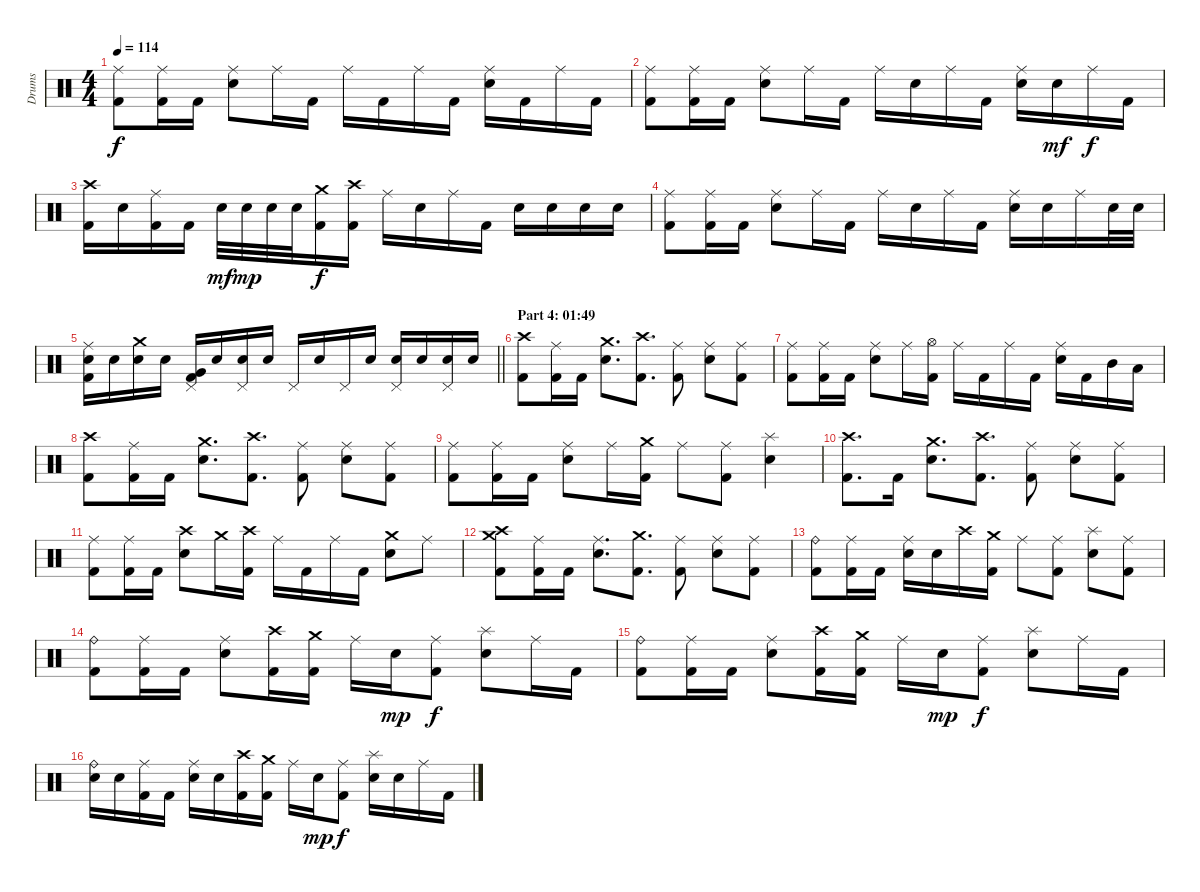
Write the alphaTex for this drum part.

\track ("Drums" "Drums") {instrument percussion}
\staff {score}
\articulation defaults
\ts (4 4)
\tempo 114
\clef neutral
\ks c
("Ride (middle)" "Kick (hit) 2").8{dy f} ("Ride (middle)" "Kick (hit) 2").16 "Kick (hit) 2".16 ("Ride (middle)" "Electric Snare (hit)").8 "Ride (middle)".16 "Kick (hit) 2".16 "Ride (middle)".16 "Kick (hit) 2".16 "Ride (middle)".16 "Kick (hit) 2".16 ("Ride (middle)" "Electric Snare (hit)").16 "Kick (hit) 2".16 "Ride (middle)".16 "Kick (hit) 2".16 |
("Ride (middle)" "Kick (hit) 2").8 ("Ride (middle)" "Kick (hit) 2").16 "Kick (hit) 2".16 ("Ride (middle)" "Electric Snare (hit)").8 "Ride (middle)".16 "Kick (hit) 2".16 "Ride (middle)".16 "Electric Snare (hit)".16 "Ride (middle)".16 "Kick (hit) 2".16 ("Ride (middle)" "Electric Snare (hit)").16 "Electric Snare (hit)".16{dy mf} "Ride (middle)".16{dy f} "Kick (hit) 2".16 |
("Crash high (hit)" "Kick (hit) 2").16 "Electric Snare (hit)".16 ("Ride (middle)" "Kick (hit) 2").16 "Kick (hit) 2".16 "Electric Snare (hit)".32{dy mf} "Electric Snare (hit)".32{dy mp} "Electric Snare (hit)".32 "Electric Snare (hit)".32 ("Crash medium (hit)" "Kick (hit) 2").16{dy f} ("Crash high (hit)" "Kick (hit) 2").16 "Ride (middle)".16 "Electric Snare (hit)".16 "Ride (middle)".16 "Kick (hit) 2".16 "Electric Snare (hit)".16 "Electric Snare (hit)".16 "Electric Snare (hit)".16 "Electric Snare (hit)".16 |
("Ride (middle)" "Kick (hit) 2").8 ("Ride (middle)" "Kick (hit) 2").16 "Kick (hit) 2".16 ("Ride (middle)" "Electric Snare (hit)").8 "Ride (middle)".16 "Kick (hit) 2".16 "Ride (middle)".16 "Electric Snare (hit)".16 "Ride (middle)".16 "Kick (hit) 2".16 ("Ride (middle)" "Electric Snare (hit)").16 "Electric Snare (hit)".16 "Ride (middle)".16 "Electric Snare (hit)".32 "Electric Snare (hit)".32 |
\barLineRight lightlight
("Ride (middle)" "Electric Snare (hit)" "Kick (hit) 2").16 "Electric Snare (hit)".16 ("Crash medium (hit)" "Electric Snare (hit)").16 "Electric Snare (hit)".16 ("Pedal Hi-Hat (hit)" "Very Low Tom (hit)" "Kick (hit) 2").16 "Electric Snare (hit)".16 ("Pedal Hi-Hat (hit)" "Electric Snare (hit)").16 "Electric Snare (hit)".16 "Pedal Hi-Hat (hit)".16 "Electric Snare (hit)".16 "Pedal Hi-Hat (hit)".16 "Electric Snare (hit)".16 ("Pedal Hi-Hat (hit)" "Electric Snare (hit)").16 "Electric Snare (hit)".16 ("Pedal Hi-Hat (hit)" "Electric Snare (hit)").16 "Electric Snare (hit)".16 |
\section ("" "Part 4: 01:49")
("Crash high (hit)" "Kick (hit) 2").8 ("Ride (middle)" "Kick (hit) 2").16 "Kick (hit) 2".16 ("Crash medium (hit)" "Electric Snare (hit)").8{d} ("Crash high (hit)" "Kick (hit) 2").8{d} ("Ride (middle)" "Kick (hit) 2").8 ("Ride (middle)" "Electric Snare (hit)").8 ("Ride (middle)" "Kick (hit) 2").8 |
("Ride (middle)" "Kick (hit) 2").8 ("Ride (middle)" "Kick (hit) 2").16 "Kick (hit) 2".16 ("Ride (middle)" "Electric Snare (hit)").8 "Ride (middle)".16 ("Hi-Hat (open)" "Kick (hit) 2").16 "Ride (middle)".16 "Kick (hit) 2".16 "Ride (middle)".16 "Kick (hit) 2".16 ("Ride (middle)" "Electric Snare (hit)").16 "Kick (hit) 2".16 "Mid Tom (hit)".16 "Low Tom (hit)".16 |
("Crash high (hit)" "Kick (hit) 2").8 ("Ride (middle)" "Kick (hit) 2").16 "Kick (hit) 2".16 ("Crash medium (hit)" "Electric Snare (hit)").8{d} ("Crash high (hit)" "Kick (hit) 2").8{d} ("Ride (middle)" "Kick (hit) 2").8 ("Ride (middle)" "Electric Snare (hit)").8 ("Ride (middle)" "Kick (hit) 2").8 |
("Ride (middle)" "Kick (hit) 2").8 ("Ride (middle)" "Kick (hit) 2").16 "Kick (hit) 2".16 ("Ride (middle)" "Electric Snare (hit)").8 "Ride (middle)".16 ("Crash medium (hit)" "Kick (hit) 2").16 "Ride (middle)".8 ("Ride (middle)" "Kick (hit) 2").8 ("Splash (hit)" "Electric Snare (hit)").4 |
("Crash high (hit)" "Kick (hit) 2").8{d} "Kick (hit) 2".16 ("Crash medium (hit)" "Electric Snare (hit)").8{d} ("Crash high (hit)" "Kick (hit) 2").8{d} ("Ride (middle)" "Kick (hit) 2").8 ("Ride (middle)" "Electric Snare (hit)").8 ("Ride (middle)" "Kick (hit) 2").8 |
("Ride (middle)" "Kick (hit) 2").8 ("Ride (middle)" "Kick (hit) 2").16 "Kick (hit) 2".16 ("Crash high (hit)" "Electric Snare (hit)").8 "Crash medium (hit)".16 ("Crash high (hit)" "Kick (hit) 2").16 "Ride (middle)".16 "Kick (hit) 2".16 "Ride (middle)".16 "Kick (hit) 2".16 ("Crash medium (hit)" "Electric Snare (hit)").8 "Ride (middle)".8 |
("Crash high (hit)" "Crash medium (hit)" "Kick (hit) 2").8 ("Ride (middle)" "Kick (hit) 2").16 "Kick (hit) 2".16 ("Ride (middle)" "Electric Snare (hit)").8{d} ("Crash medium (hit)" "Kick (hit) 2").8{d} ("Ride (middle)" "Kick (hit) 2").8 ("Ride (middle)" "Electric Snare (hit)").8 ("Ride (middle)" "Kick (hit) 2").8 |
("Ride (bell)" "Kick (hit) 2").8 ("Ride (middle)" "Kick (hit) 2").16 "Kick (hit) 2".16 ("Ride (middle)" "Electric Snare (hit)").16 "Electric Snare (hit)".16 "Crash high (hit)".16 ("Crash medium (hit)" "Kick (hit) 2").16 "Ride (middle)".8 ("Ride (middle)" "Kick (hit) 2").8 ("Splash (hit)" "Electric Snare (hit)").8 ("Ride (middle)" "Kick (hit) 2").8 |
("Ride (bell)" "Kick (hit) 2").8 ("Ride (middle)" "Kick (hit) 2").16 "Kick (hit) 2".16 ("Ride (middle)" "Electric Snare (hit)").8 ("Crash high (hit)" "Kick (hit) 2").16 ("Crash medium (hit)" "Kick (hit) 2").16 "Ride (middle)".16 "Electric Snare (hit)".16{dy mp} ("Ride (middle)" "Kick (hit) 2").8{dy f} ("Splash (hit)" "Electric Snare (hit)").8 "Ride (middle)".16 "Kick (hit) 2".16 |
("Ride (bell)" "Kick (hit) 2").8 ("Ride (middle)" "Kick (hit) 2").16 "Kick (hit) 2".16 ("Ride (middle)" "Electric Snare (hit)").8 ("Crash high (hit)" "Kick (hit) 2").16 ("Crash medium (hit)" "Kick (hit) 2").16 "Ride (middle)".16 "Electric Snare (hit)".16{dy mp} ("Ride (middle)" "Kick (hit) 2").8{dy f} ("Splash (hit)" "Electric Snare (hit)").8 "Ride (middle)".16 "Kick (hit) 2".16 |
("Ride (bell)" "Electric Snare (hit)").16 "Electric Snare (hit)".16 ("Ride (middle)" "Kick (hit) 2").16 "Kick (hit) 2".16 ("Ride (middle)" "Electric Snare (hit)").16 "Electric Snare (hit)".16 ("Crash high (hit)" "Kick (hit) 2").16 ("Crash medium (hit)" "Kick (hit) 2").16 "Ride (middle)".16 "Electric Snare (hit)".16{dy mp} ("Ride (middle)" "Kick (hit) 2").8{dy f} ("Splash (hit)" "Electric Snare (hit)").16 "Electric Snare (hit)".16 "Ride (middle)".16 "Kick (hit) 2".16
